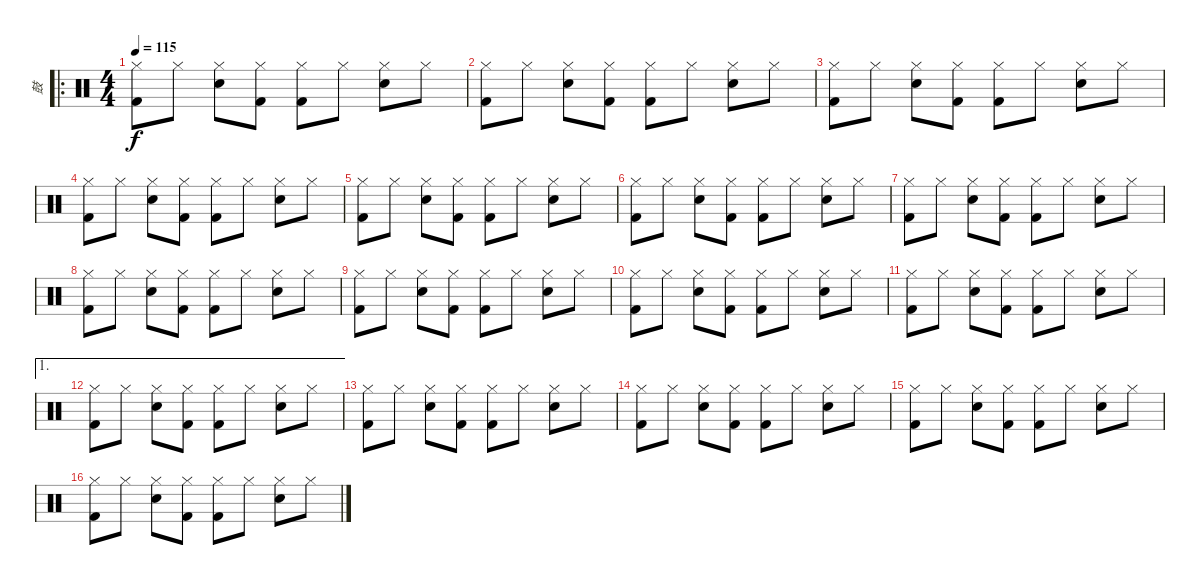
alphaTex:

\track ("鼓" "鼓") {instrument percussion}
\staff {score}
\articulation defaults
\ro
\ts (4 4)
\tempo 115
\clef neutral
\ks c
("Hi-Hat (closed)" "Kick (hit) 2").8{dy f} "Hi-Hat (closed)".8 ("Hi-Hat (closed)" "Electric Snare (hit)").8 ("Hi-Hat (closed)" "Kick (hit) 2").8 ("Hi-Hat (closed)" "Kick (hit) 2").8 "Hi-Hat (closed)".8 ("Hi-Hat (closed)" "Electric Snare (hit)").8 "Hi-Hat (closed)".8 |
("Hi-Hat (closed)" "Kick (hit) 2").8 "Hi-Hat (closed)".8 ("Hi-Hat (closed)" "Electric Snare (hit)").8 ("Hi-Hat (closed)" "Kick (hit) 2").8 ("Hi-Hat (closed)" "Kick (hit) 2").8 "Hi-Hat (closed)".8 ("Hi-Hat (closed)" "Electric Snare (hit)").8 "Hi-Hat (closed)".8 |
("Hi-Hat (closed)" "Kick (hit) 2").8 "Hi-Hat (closed)".8 ("Hi-Hat (closed)" "Electric Snare (hit)").8 ("Hi-Hat (closed)" "Kick (hit) 2").8 ("Hi-Hat (closed)" "Kick (hit) 2").8 "Hi-Hat (closed)".8 ("Hi-Hat (closed)" "Electric Snare (hit)").8 "Hi-Hat (closed)".8 |
("Hi-Hat (closed)" "Kick (hit) 2").8 "Hi-Hat (closed)".8 ("Hi-Hat (closed)" "Electric Snare (hit)").8 ("Hi-Hat (closed)" "Kick (hit) 2").8 ("Hi-Hat (closed)" "Kick (hit) 2").8 "Hi-Hat (closed)".8 ("Hi-Hat (closed)" "Electric Snare (hit)").8 "Hi-Hat (closed)".8 |
("Hi-Hat (closed)" "Kick (hit) 2").8 "Hi-Hat (closed)".8 ("Hi-Hat (closed)" "Electric Snare (hit)").8 ("Hi-Hat (closed)" "Kick (hit) 2").8 ("Hi-Hat (closed)" "Kick (hit) 2").8 "Hi-Hat (closed)".8 ("Hi-Hat (closed)" "Electric Snare (hit)").8 "Hi-Hat (closed)".8 |
("Hi-Hat (closed)" "Kick (hit) 2").8 "Hi-Hat (closed)".8 ("Hi-Hat (closed)" "Electric Snare (hit)").8 ("Hi-Hat (closed)" "Kick (hit) 2").8 ("Hi-Hat (closed)" "Kick (hit) 2").8 "Hi-Hat (closed)".8 ("Hi-Hat (closed)" "Electric Snare (hit)").8 "Hi-Hat (closed)".8 |
("Hi-Hat (closed)" "Kick (hit) 2").8 "Hi-Hat (closed)".8 ("Hi-Hat (closed)" "Electric Snare (hit)").8 ("Hi-Hat (closed)" "Kick (hit) 2").8 ("Hi-Hat (closed)" "Kick (hit) 2").8 "Hi-Hat (closed)".8 ("Hi-Hat (closed)" "Electric Snare (hit)").8 "Hi-Hat (closed)".8 |
("Hi-Hat (closed)" "Kick (hit) 2").8 "Hi-Hat (closed)".8 ("Hi-Hat (closed)" "Electric Snare (hit)").8 ("Hi-Hat (closed)" "Kick (hit) 2").8 ("Hi-Hat (closed)" "Kick (hit) 2").8 "Hi-Hat (closed)".8 ("Hi-Hat (closed)" "Electric Snare (hit)").8 "Hi-Hat (closed)".8 |
("Hi-Hat (closed)" "Kick (hit) 2").8 "Hi-Hat (closed)".8 ("Hi-Hat (closed)" "Electric Snare (hit)").8 ("Hi-Hat (closed)" "Kick (hit) 2").8 ("Hi-Hat (closed)" "Kick (hit) 2").8 "Hi-Hat (closed)".8 ("Hi-Hat (closed)" "Electric Snare (hit)").8 "Hi-Hat (closed)".8 |
("Hi-Hat (closed)" "Kick (hit) 2").8 "Hi-Hat (closed)".8 ("Hi-Hat (closed)" "Electric Snare (hit)").8 ("Hi-Hat (closed)" "Kick (hit) 2").8 ("Hi-Hat (closed)" "Kick (hit) 2").8 "Hi-Hat (closed)".8 ("Hi-Hat (closed)" "Electric Snare (hit)").8 "Hi-Hat (closed)".8 |
("Hi-Hat (closed)" "Kick (hit) 2").8 "Hi-Hat (closed)".8 ("Hi-Hat (closed)" "Electric Snare (hit)").8 ("Hi-Hat (closed)" "Kick (hit) 2").8 ("Hi-Hat (closed)" "Kick (hit) 2").8 "Hi-Hat (closed)".8 ("Hi-Hat (closed)" "Electric Snare (hit)").8 "Hi-Hat (closed)".8 |
\ae 1
("Hi-Hat (closed)" "Kick (hit) 2").8 "Hi-Hat (closed)".8 ("Hi-Hat (closed)" "Electric Snare (hit)").8 ("Hi-Hat (closed)" "Kick (hit) 2").8 ("Hi-Hat (closed)" "Kick (hit) 2").8 "Hi-Hat (closed)".8 ("Hi-Hat (closed)" "Electric Snare (hit)").8 "Hi-Hat (closed)".8 |
("Hi-Hat (closed)" "Kick (hit) 2").8 "Hi-Hat (closed)".8 ("Hi-Hat (closed)" "Electric Snare (hit)").8 ("Hi-Hat (closed)" "Kick (hit) 2").8 ("Hi-Hat (closed)" "Kick (hit) 2").8 "Hi-Hat (closed)".8 ("Hi-Hat (closed)" "Electric Snare (hit)").8 "Hi-Hat (closed)".8 |
("Hi-Hat (closed)" "Kick (hit) 2").8 "Hi-Hat (closed)".8 ("Hi-Hat (closed)" "Electric Snare (hit)").8 ("Hi-Hat (closed)" "Kick (hit) 2").8 ("Hi-Hat (closed)" "Kick (hit) 2").8 "Hi-Hat (closed)".8 ("Hi-Hat (closed)" "Electric Snare (hit)").8 "Hi-Hat (closed)".8 |
("Hi-Hat (closed)" "Kick (hit) 2").8 "Hi-Hat (closed)".8 ("Hi-Hat (closed)" "Electric Snare (hit)").8 ("Hi-Hat (closed)" "Kick (hit) 2").8 ("Hi-Hat (closed)" "Kick (hit) 2").8 "Hi-Hat (closed)".8 ("Hi-Hat (closed)" "Electric Snare (hit)").8 "Hi-Hat (closed)".8 |
("Hi-Hat (closed)" "Kick (hit) 2").8 "Hi-Hat (closed)".8 ("Hi-Hat (closed)" "Electric Snare (hit)").8 ("Hi-Hat (closed)" "Kick (hit) 2").8 ("Hi-Hat (closed)" "Kick (hit) 2").8 "Hi-Hat (closed)".8 ("Hi-Hat (closed)" "Electric Snare (hit)").8 "Hi-Hat (closed)".8
